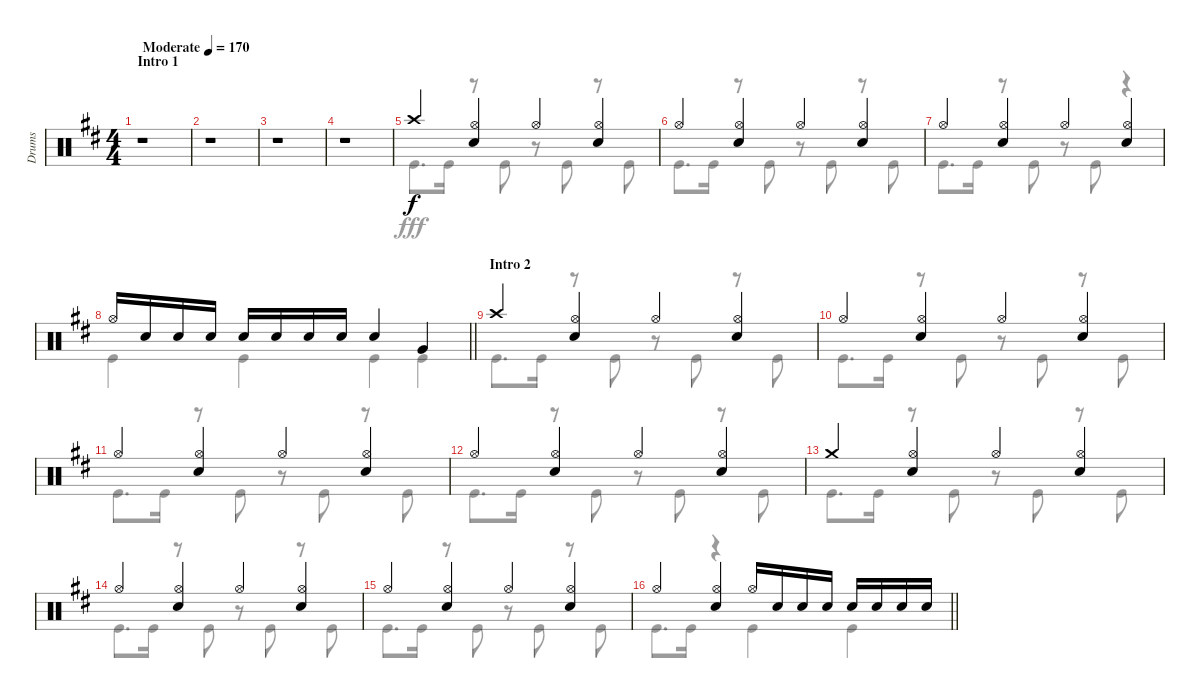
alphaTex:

\track ("Drums" "Drums") {instrument percussion}
\staff {score}
\articulation defaults
\voice
\ts (4 4)
\section ("" "Intro 1")
\tempo (170 "Moderate")
\clef neutral
\ks d
r.1{dy f} |
r.1 |
r.1 |
r.1 |
"Crash high (hit)".4 ("Hi-Hat (open)" "Snare (hit) 2").4 "Hi-Hat (open)".4 ("Hi-Hat (open)" "Snare (hit) 2").4 |
"Hi-Hat (open)".4 ("Hi-Hat (open)" "Snare (hit) 2").4 "Hi-Hat (open)".4 ("Hi-Hat (open)" "Snare (hit) 2").4 |
"Hi-Hat (open)".4 ("Hi-Hat (open)" "Snare (hit) 2").4 "Hi-Hat (open)".4 ("Hi-Hat (open)" "Snare (hit) 2").4 |
\barLineRight lightlight "Hi-Hat (open)".16 "Snare (hit) 2".16 "Snare (hit) 2".16 "Snare (hit) 2".16 "Snare (hit) 2".16 "Snare (hit) 2".16 "Snare (hit) 2".16 "Snare (hit) 2".16 "Snare (hit) 2".4 "Very Low Tom (hit)".4
|
\section ("" "Intro 2")
"Crash high (hit)".4 ("Hi-Hat (open)" "Snare (hit) 2").4 "Hi-Hat (open)".4 ("Hi-Hat (open)" "Snare (hit) 2").4 |
"Hi-Hat (open)".4 ("Hi-Hat (open)" "Snare (hit) 2").4 "Hi-Hat (open)".4 ("Hi-Hat (open)" "Snare (hit) 2").4 |
"Hi-Hat (open)".4 ("Hi-Hat (open)" "Snare (hit) 2").4 "Hi-Hat (open)".4 ("Hi-Hat (open)" "Snare (hit) 2").4 |
"Hi-Hat (open)".4 ("Hi-Hat (open)" "Snare (hit) 2").4 "Hi-Hat (open)".4 ("Hi-Hat (open)" "Snare (hit) 2").4 |
"Crash medium (hit)".4 ("Hi-Hat (open)" "Snare (hit) 2").4 "Hi-Hat (open)".4 ("Hi-Hat (open)" "Snare (hit) 2").4 |
"Hi-Hat (open)".4 ("Hi-Hat (open)" "Snare (hit) 2").4 "Hi-Hat (open)".4 ("Hi-Hat (open)" "Snare (hit) 2").4 |
"Hi-Hat (open)".4 ("Hi-Hat (open)" "Snare (hit) 2").4 "Hi-Hat (open)".4 ("Hi-Hat (open)" "Snare (hit) 2").4 |
\barLineRight lightlight "Hi-Hat (open)".4
("Hi-Hat (open)" "Snare (hit) 2").4 "Hi-Hat (open)".16 "Snare (hit) 2".16 "Snare (hit) 2".16 "Snare (hit) 2".16 "Snare (hit) 2".16 "Snare (hit) 2".16 "Snare (hit) 2".16 "Snare (hit) 2".16
\voice
\clef neutral
\ottava regular
\simile none
\ks d
r.1{dy fff} |
r.1 |
r.1 |
r.1 |
"Kick (hit)".8{d} "Kick (hit)".16 r.8 "Kick (hit)".8 r.8 "Kick (hit)".8 r.8 "Kick (hit)".8 |
"Kick (hit)".8{d} "Kick (hit)".16 r.8 "Kick (hit)".8 r.8 "Kick (hit)".8 r.8 "Kick (hit)".8 |
"Kick (hit)".8{d} "Kick (hit)".16 r.8 "Kick (hit)".8 r.8 "Kick (hit)".8 r.4 |
\barLineRight lightlight "Kick (hit)".4 "Kick (hit)".4 "Kick (hit)".4 "Kick (hit)".4
|
"Kick (hit)".8{d} "Kick (hit)".16 r.8 "Kick (hit)".8 r.8 "Kick (hit)".8 r.8 "Kick (hit)".8 |
"Kick (hit)".8{d} "Kick (hit)".16 r.8 "Kick (hit)".8 r.8 "Kick (hit)".8 r.8 "Kick (hit)".8 |
"Kick (hit)".8{d} "Kick (hit)".16 r.8 "Kick (hit)".8 r.8 "Kick (hit)".8 r.8 "Kick (hit)".8 |
"Kick (hit)".8{d} "Kick (hit)".16 r.8 "Kick (hit)".8 r.8 "Kick (hit)".8 r.8 "Kick (hit)".8 |
"Kick (hit)".8{d} "Kick (hit)".16 r.8 "Kick (hit)".8 r.8 "Kick (hit)".8 r.8 "Kick (hit)".8 |
"Kick (hit)".8{d} "Kick (hit)".16 r.8 "Kick (hit)".8 r.8 "Kick (hit)".8 r.8 "Kick (hit)".8 |
"Kick (hit)".8{d} "Kick (hit)".16 r.8 "Kick (hit)".8 r.8 "Kick (hit)".8 r.8 "Kick (hit)".8 |
\barLineRight lightlight "Kick (hit)".8{d} "Kick (hit)".16
r.4 "Kick (hit)".4 "Kick (hit)".4
